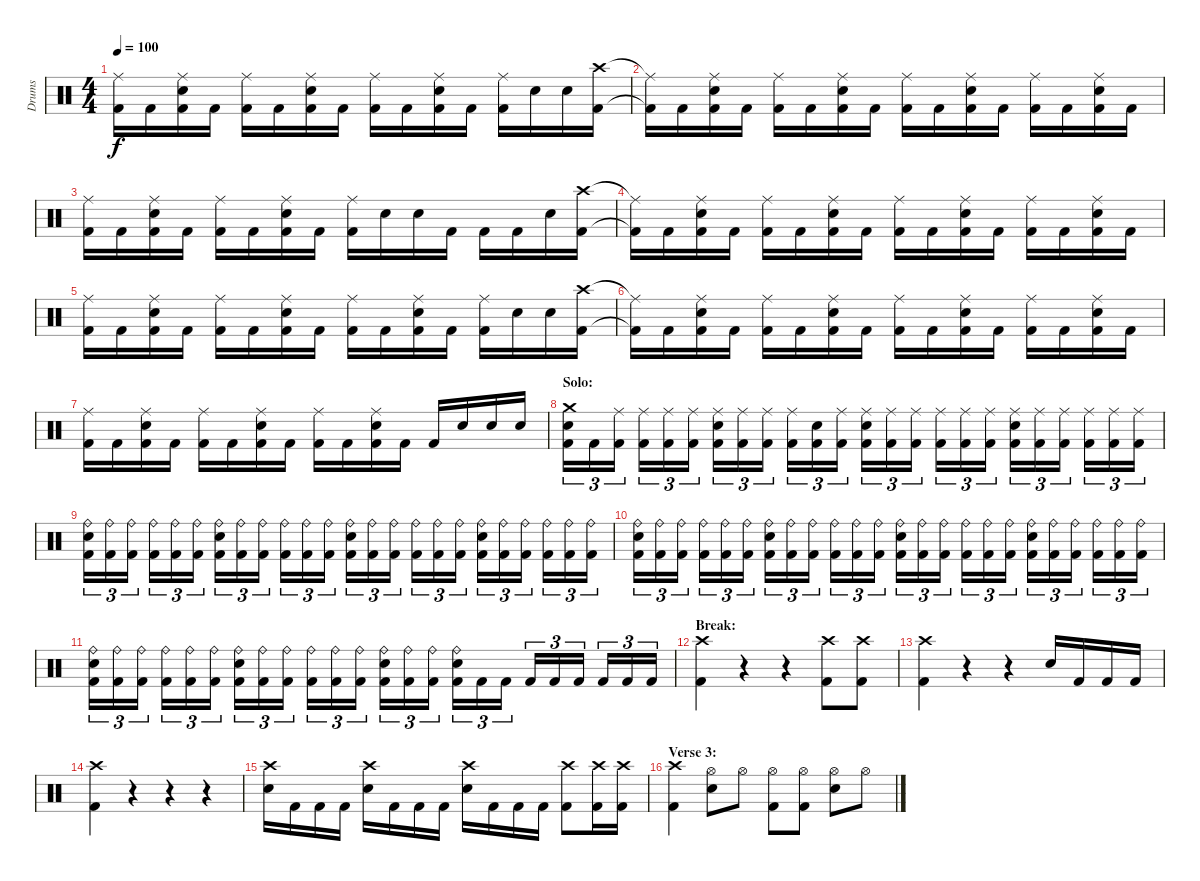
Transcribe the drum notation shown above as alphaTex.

\track ("Drums" "Drums") {instrument percussion}
\staff {score}
\articulation defaults
\ts (4 4)
\tempo 100
\clef neutral
\ks c
("Ride (middle)" "Kick (hit) 2").16{dy f} "Kick (hit) 2".16 ("Ride (middle)" "Electric Snare (hit)" "Kick (hit) 2").16 "Kick (hit) 2".16 ("Ride (middle)" "Kick (hit) 2").16 "Kick (hit) 2".16 ("Ride (middle)" "Electric Snare (hit)" "Kick (hit) 2").16 "Kick (hit) 2".16 ("Ride (middle)" "Kick (hit) 2").16 "Kick (hit) 2".16 ("Ride (middle)" "Electric Snare (hit)" "Kick (hit) 2").16 "Kick (hit) 2".16 ("Ride (middle)" "Kick (hit) 2").16 "Electric Snare (hit)".16 "Electric Snare (hit)".16 ("Crash high (hit)" "Kick (hit) 2").16 |
("Ride (middle)"{t} "Kick (hit) 2"{t}).16 "Kick (hit) 2".16 ("Ride (middle)" "Electric Snare (hit)" "Kick (hit) 2").16 "Kick (hit) 2".16 ("Ride (middle)" "Kick (hit) 2").16 "Kick (hit) 2".16 ("Ride (middle)" "Electric Snare (hit)" "Kick (hit) 2").16 "Kick (hit) 2".16 ("Ride (middle)" "Kick (hit) 2").16 "Kick (hit) 2".16 ("Ride (middle)" "Electric Snare (hit)" "Kick (hit) 2").16 "Kick (hit) 2".16 ("Ride (middle)" "Kick (hit) 2").16 "Kick (hit) 2".16 ("Ride (middle)" "Electric Snare (hit)" "Kick (hit) 2").16 "Kick (hit) 2".16 |
("Ride (middle)" "Kick (hit) 2").16 "Kick (hit) 2".16 ("Ride (middle)" "Electric Snare (hit)" "Kick (hit) 2").16 "Kick (hit) 2".16 ("Ride (middle)" "Kick (hit) 2").16 "Kick (hit) 2".16 ("Ride (middle)" "Electric Snare (hit)" "Kick (hit) 2").16 "Kick (hit) 2".16 ("Ride (middle)" "Kick (hit) 2").16 "Electric Snare (hit)".16 "Electric Snare (hit)".16 "Kick (hit) 2".16 "Kick (hit) 2".16 "Kick (hit) 2".16 "Electric Snare (hit)".16 ("Crash high (hit)" "Kick (hit) 2").16 |
("Ride (middle)"{t} "Kick (hit) 2"{t}).16 "Kick (hit) 2".16 ("Ride (middle)" "Electric Snare (hit)" "Kick (hit) 2").16 "Kick (hit) 2".16 ("Ride (middle)" "Kick (hit) 2").16 "Kick (hit) 2".16 ("Ride (middle)" "Electric Snare (hit)" "Kick (hit) 2").16 "Kick (hit) 2".16 ("Ride (middle)" "Kick (hit) 2").16 "Kick (hit) 2".16 ("Ride (middle)" "Electric Snare (hit)" "Kick (hit) 2").16 "Kick (hit) 2".16 ("Ride (middle)" "Kick (hit) 2").16 "Kick (hit) 2".16 ("Ride (middle)" "Electric Snare (hit)" "Kick (hit) 2").16 "Kick (hit) 2".16 |
("Ride (middle)" "Kick (hit) 2").16 "Kick (hit) 2".16 ("Ride (middle)" "Electric Snare (hit)" "Kick (hit) 2").16 "Kick (hit) 2".16 ("Ride (middle)" "Kick (hit) 2").16 "Kick (hit) 2".16 ("Ride (middle)" "Electric Snare (hit)" "Kick (hit) 2").16 "Kick (hit) 2".16 ("Ride (middle)" "Kick (hit) 2").16 "Kick (hit) 2".16 ("Ride (middle)" "Electric Snare (hit)" "Kick (hit) 2").16 "Kick (hit) 2".16 ("Ride (middle)" "Kick (hit) 2").16 "Electric Snare (hit)".16 "Electric Snare (hit)".16 ("Crash high (hit)" "Kick (hit) 2").16 |
("Ride (middle)"{t} "Kick (hit) 2"{t}).16 "Kick (hit) 2".16 ("Ride (middle)" "Electric Snare (hit)" "Kick (hit) 2").16 "Kick (hit) 2".16 ("Ride (middle)" "Kick (hit) 2").16 "Kick (hit) 2".16 ("Ride (middle)" "Electric Snare (hit)" "Kick (hit) 2").16 "Kick (hit) 2".16 ("Ride (middle)" "Kick (hit) 2").16 "Kick (hit) 2".16 ("Ride (middle)" "Electric Snare (hit)" "Kick (hit) 2").16 "Kick (hit) 2".16 ("Ride (middle)" "Kick (hit) 2").16 "Kick (hit) 2".16 ("Ride (middle)" "Electric Snare (hit)" "Kick (hit) 2").16 "Kick (hit) 2".16 |
("Ride (middle)" "Kick (hit) 2").16 "Kick (hit) 2".16 ("Ride (middle)" "Electric Snare (hit)" "Kick (hit) 2").16 "Kick (hit) 2".16 ("Ride (middle)" "Kick (hit) 2").16 "Kick (hit) 2".16 ("Ride (middle)" "Electric Snare (hit)" "Kick (hit) 2").16 "Kick (hit) 2".16 ("Ride (middle)" "Kick (hit) 2").16 "Kick (hit) 2".16 ("Ride (middle)" "Electric Snare (hit)" "Kick (hit) 2").16 "Kick (hit) 2".16 "Kick (hit) 2".16 "Electric Snare (hit)".16 "Electric Snare (hit)".16 "Electric Snare (hit)".16 |
\section ("" "Solo:")
("Crash medium (hit)" "Electric Snare (hit)" "Kick (hit) 2").16{tu (3 2)} "Kick (hit) 2".16{tu (3 2)} ("Ride (middle)" "Kick (hit) 2").16{tu (3 2)} ("Ride (middle)" "Kick (hit) 2").16{tu (3 2)} ("Ride (middle)" "Kick (hit) 2").16{tu (3 2)} ("Ride (middle)" "Kick (hit) 2").16{tu (3 2)} ("Ride (middle)" "Electric Snare (hit)" "Kick (hit) 2").16{tu (3 2)} ("Ride (middle)" "Kick (hit) 2").16{tu (3 2)} ("Ride (middle)" "Kick (hit) 2").16{tu (3 2)} ("Ride (middle)" "Kick (hit) 2").16{tu (3 2)} ("Snare (hit)" "Kick (hit) 2").16{tu (3 2)} ("Ride (middle)" "Kick (hit) 2").16{tu (3 2)} ("Ride (middle)" "Electric Snare (hit)" "Kick (hit) 2").16{tu (3 2)} ("Ride (middle)" "Kick (hit) 2").16{tu (3 2)} ("Ride (middle)" "Kick (hit) 2").16{tu (3 2)} ("Ride (middle)" "Kick (hit) 2").16{tu (3 2)} ("Ride (middle)" "Kick (hit) 2").16{tu (3 2)} ("Ride (middle)" "Kick (hit) 2").16{tu (3 2)} ("Ride (middle)" "Electric Snare (hit)" "Kick (hit) 2").16{tu (3 2)} ("Ride (middle)" "Kick (hit) 2").16{tu (3 2)} ("Ride (middle)" "Kick (hit) 2").16{tu (3 2)} ("Ride (middle)" "Kick (hit) 2").16{tu (3 2)} ("Ride (middle)" "Kick (hit) 2").16{tu (3 2)} ("Ride (middle)" "Kick (hit) 2").16{tu (3 2)} |
("Ride (bell)" "Electric Snare (hit)" "Kick (hit) 2").16{tu (3 2)} ("Ride (bell)" "Kick (hit) 2").16{tu (3 2)} ("Ride (bell)" "Kick (hit) 2").16{tu (3 2)} ("Ride (bell)" "Kick (hit) 2").16{tu (3 2)} ("Ride (bell)" "Kick (hit) 2").16{tu (3 2)} ("Ride (bell)" "Kick (hit) 2").16{tu (3 2)} ("Ride (bell)" "Electric Snare (hit)" "Kick (hit) 2").16{tu (3 2)} ("Ride (bell)" "Kick (hit) 2").16{tu (3 2)} ("Ride (bell)" "Kick (hit) 2").16{tu (3 2)} ("Ride (bell)" "Kick (hit) 2").16{tu (3 2)} ("Ride (bell)" "Kick (hit) 2").16{tu (3 2)} ("Ride (bell)" "Kick (hit) 2").16{tu (3 2)} ("Ride (bell)" "Electric Snare (hit)" "Kick (hit) 2").16{tu (3 2)} ("Ride (bell)" "Kick (hit) 2").16{tu (3 2)} ("Ride (bell)" "Kick (hit) 2").16{tu (3 2)} ("Ride (bell)" "Kick (hit) 2").16{tu (3 2)} ("Ride (bell)" "Kick (hit) 2").16{tu (3 2)} ("Ride (bell)" "Kick (hit) 2").16{tu (3 2)} ("Ride (bell)" "Electric Snare (hit)" "Kick (hit) 2").16{tu (3 2)} ("Ride (bell)" "Kick (hit) 2").16{tu (3 2)} ("Ride (bell)" "Kick (hit) 2").16{tu (3 2)} ("Ride (bell)" "Kick (hit) 2").16{tu (3 2)} ("Ride (bell)" "Kick (hit) 2").16{tu (3 2)} ("Ride (bell)" "Kick (hit) 2").16{tu (3 2)} |
("Ride (bell)" "Electric Snare (hit)" "Kick (hit) 2").16{tu (3 2)} ("Ride (bell)" "Kick (hit) 2").16{tu (3 2)} ("Ride (bell)" "Kick (hit) 2").16{tu (3 2)} ("Ride (bell)" "Kick (hit) 2").16{tu (3 2)} ("Ride (bell)" "Kick (hit) 2").16{tu (3 2)} ("Ride (bell)" "Kick (hit) 2").16{tu (3 2)} ("Ride (bell)" "Electric Snare (hit)" "Kick (hit) 2").16{tu (3 2)} ("Ride (bell)" "Kick (hit) 2").16{tu (3 2)} ("Ride (bell)" "Kick (hit) 2").16{tu (3 2)} ("Ride (bell)" "Kick (hit) 2").16{tu (3 2)} ("Ride (bell)" "Kick (hit) 2").16{tu (3 2)} ("Ride (bell)" "Kick (hit) 2").16{tu (3 2)} ("Ride (bell)" "Electric Snare (hit)" "Kick (hit) 2").16{tu (3 2)} ("Ride (bell)" "Kick (hit) 2").16{tu (3 2)} ("Ride (bell)" "Kick (hit) 2").16{tu (3 2)} ("Ride (bell)" "Kick (hit) 2").16{tu (3 2)} ("Ride (bell)" "Kick (hit) 2").16{tu (3 2)} ("Ride (bell)" "Kick (hit) 2").16{tu (3 2)} ("Ride (bell)" "Electric Snare (hit)" "Kick (hit) 2").16{tu (3 2)} ("Ride (bell)" "Kick (hit) 2").16{tu (3 2)} ("Ride (bell)" "Kick (hit) 2").16{tu (3 2)} ("Ride (bell)" "Kick (hit) 2").16{tu (3 2)} ("Ride (bell)" "Kick (hit) 2").16{tu (3 2)} ("Ride (bell)" "Kick (hit) 2").16{tu (3 2)} |
("Ride (bell)" "Electric Snare (hit)" "Kick (hit) 2").16{tu (3 2)} ("Ride (bell)" "Kick (hit) 2").16{tu (3 2)} ("Ride (bell)" "Kick (hit) 2").16{tu (3 2)} ("Ride (bell)" "Kick (hit) 2").16{tu (3 2)} ("Ride (bell)" "Kick (hit) 2").16{tu (3 2)} ("Ride (bell)" "Kick (hit) 2").16{tu (3 2)} ("Ride (bell)" "Electric Snare (hit)" "Kick (hit) 2").16{tu (3 2)} ("Ride (bell)" "Kick (hit) 2").16{tu (3 2)} ("Ride (bell)" "Kick (hit) 2").16{tu (3 2)} ("Ride (bell)" "Kick (hit) 2").16{tu (3 2)} ("Ride (bell)" "Kick (hit) 2").16{tu (3 2)} ("Ride (bell)" "Kick (hit) 2").16{tu (3 2)} ("Ride (bell)" "Electric Snare (hit)" "Kick (hit) 2").16{tu (3 2)} ("Ride (bell)" "Kick (hit) 2").16{tu (3 2)} ("Ride (bell)" "Kick (hit) 2").16{tu (3 2)} ("Ride (bell)" "Electric Snare (hit)" "Kick (hit) 2").16{tu (3 2)} "Kick (hit) 2".16{tu (3 2)} "Kick (hit) 2".16{tu (3 2)} "Kick (hit) 2".16{tu (3 2)} "Kick (hit) 2".16{tu (3 2)} "Kick (hit) 2".16{tu (3 2)} "Kick (hit) 2".16{tu (3 2)} "Kick (hit) 2".16{tu (3 2)} "Kick (hit) 2".16{tu (3 2)} |
\section ("" "Break:")
("Crash high (hit)" "Kick (hit) 2").4 r.4 r.4 ("Crash high (hit)" "Kick (hit) 2").8 ("Crash high (hit)" "Kick (hit) 2").8 |
("Crash high (hit)" "Kick (hit) 2").4 r.4 r.4 "Electric Snare (hit)".16 "Kick (hit) 2".16 "Kick (hit) 2".16 "Kick (hit) 2".16 |
("Crash high (hit)" "Kick (hit) 2").4 r.4 r.4 r.4 |
("Crash high (hit)" "Electric Snare (hit)").16 "Kick (hit) 2".16 "Kick (hit) 2".16 "Kick (hit) 2".16 ("Crash high (hit)" "Electric Snare (hit)").16 "Kick (hit) 2".16 "Kick (hit) 2".16 "Kick (hit) 2".16 ("Crash high (hit)" "Electric Snare (hit)").16 "Kick (hit) 2".16 "Kick (hit) 2".16 "Kick (hit) 2".16 ("Crash high (hit)" "Kick (hit) 2").8 ("Crash high (hit)" "Kick (hit) 2").16 ("Crash high (hit)" "Kick (hit) 2").16 |
\section ("" "Verse 3:")
("Crash high (hit)" "Kick (hit) 2").4 ("Hi-Hat (open)" "Electric Snare (hit)").8 "Hi-Hat (open)".8 ("Hi-Hat (open)" "Kick (hit) 2").8 ("Hi-Hat (open)" "Kick (hit) 2").8 ("Hi-Hat (open)" "Electric Snare (hit)").8 "Hi-Hat (open)".8
